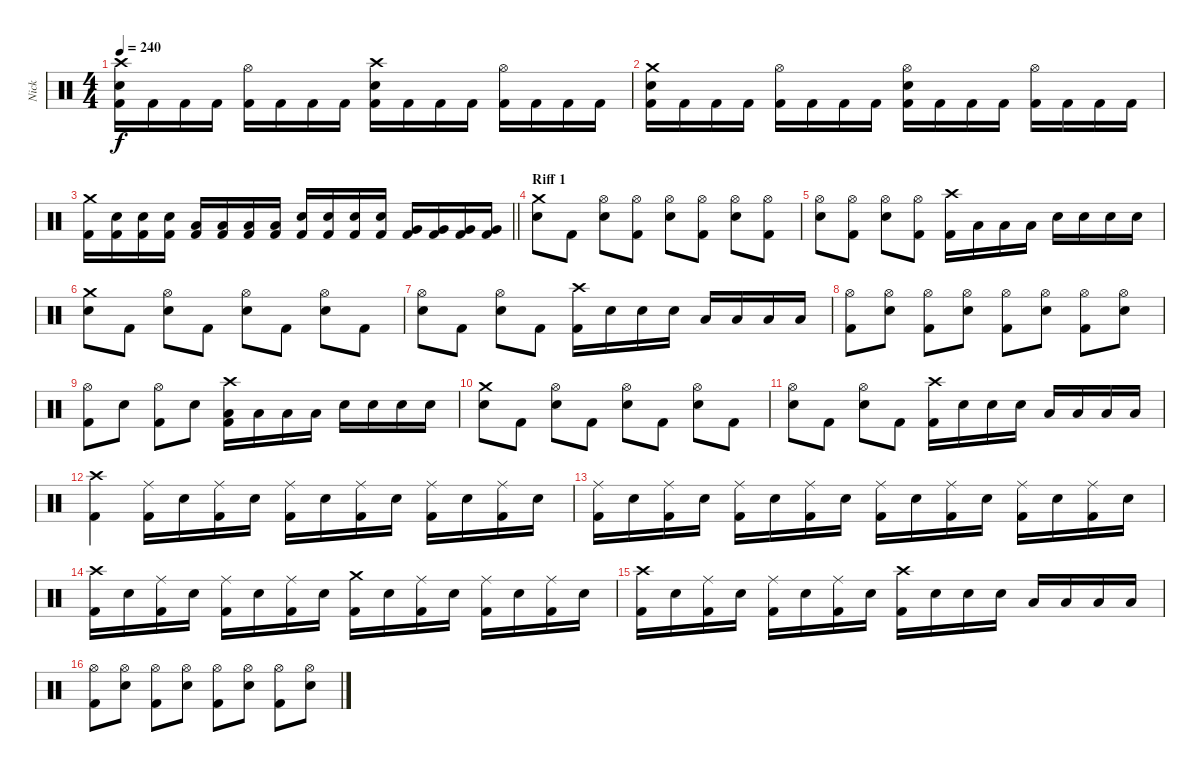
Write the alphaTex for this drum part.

\track ("Nick" "Nick") {instrument percussion}
\staff {score}
\articulation defaults
\ts (4 4)
\tempo 240
\clef neutral
\ks c
("Crash high (hit)" "Electric Snare (hit)" "Kick (hit) 2").16{dy f} "Kick (hit) 2".16 "Kick (hit) 2".16 "Kick (hit) 2".16 ("Hi-Hat (open)" "Kick (hit) 2").16 "Kick (hit) 2".16 "Kick (hit) 2".16 "Kick (hit) 2".16 ("Crash high (hit)" "Electric Snare (hit)" "Kick (hit) 2").16 "Kick (hit) 2".16 "Kick (hit) 2".16 "Kick (hit) 2".16 ("Hi-Hat (open)" "Kick (hit) 2").16 "Kick (hit) 2".16 "Kick (hit) 2".16 "Kick (hit) 2".16 |
("Crash medium (hit)" "Electric Snare (hit)" "Kick (hit) 2").16 "Kick (hit) 2".16 "Kick (hit) 2".16 "Kick (hit) 2".16 ("Hi-Hat (open)" "Kick (hit) 2").16 "Kick (hit) 2".16 "Kick (hit) 2".16 "Kick (hit) 2".16 ("Hi-Hat (open)" "Electric Snare (hit)" "Kick (hit) 2").16 "Kick (hit) 2".16 "Kick (hit) 2".16 "Kick (hit) 2".16 ("Hi-Hat (open)" "Kick (hit) 2").16 "Kick (hit) 2".16 "Kick (hit) 2".16 "Kick (hit) 2".16 |
\barLineRight lightlight
("Crash medium (hit)" "Kick (hit) 2").16 ("Electric Snare (hit)" "Kick (hit) 2").16 ("Electric Snare (hit)" "Kick (hit) 2").16 ("Electric Snare (hit)" "Kick (hit) 2").16 ("Low Tom (hit)" "Kick (hit) 2").16 ("Low Tom (hit)" "Kick (hit) 2").16 ("Low Tom (hit)" "Kick (hit) 2").16 ("Low Tom (hit)" "Kick (hit) 2").16 ("Electric Snare (hit)" "Kick (hit) 2").16 ("Electric Snare (hit)" "Kick (hit) 2").16 ("Electric Snare (hit)" "Kick (hit) 2").16 ("Electric Snare (hit)" "Kick (hit) 2").16 ("Very Low Tom (hit)" "Kick (hit) 2").16 ("Very Low Tom (hit)" "Kick (hit) 2").16 ("Very Low Tom (hit)" "Kick (hit) 2").16 ("Very Low Tom (hit)" "Kick (hit) 2").16 |
\section ("" "Riff 1")
("Crash medium (hit)" "Electric Snare (hit)").8 "Kick (hit) 2".8 ("Hi-Hat (open)" "Electric Snare (hit)").8 ("Hi-Hat (open)" "Kick (hit) 2").8 ("Hi-Hat (open)" "Electric Snare (hit)").8 ("Hi-Hat (open)" "Kick (hit) 2").8 ("Hi-Hat (open)" "Electric Snare (hit)").8 ("Hi-Hat (open)" "Kick (hit) 2").8 |
("Hi-Hat (open)" "Electric Snare (hit)").8 ("Hi-Hat (open)" "Kick (hit) 2").8 ("Hi-Hat (open)" "Electric Snare (hit)").8 ("Hi-Hat (open)" "Kick (hit) 2").8 ("Crash high (hit)" "Kick (hit) 2").16 "Low Tom (hit)".16 "Low Tom (hit)".16 "Low Tom (hit)".16 "Electric Snare (hit)".16 "Electric Snare (hit)".16 "Electric Snare (hit)".16 "Electric Snare (hit)".16 |
("Crash medium (hit)" "Electric Snare (hit)").8 "Kick (hit) 2".8 ("Hi-Hat (open)" "Electric Snare (hit)").8 "Kick (hit) 2".8 ("Hi-Hat (open)" "Electric Snare (hit)").8 "Kick (hit) 2".8 ("Hi-Hat (open)" "Electric Snare (hit)").8 "Kick (hit) 2".8 |
("Hi-Hat (open)" "Electric Snare (hit)").8 "Kick (hit) 2".8 ("Hi-Hat (open)" "Electric Snare (hit)").8 "Kick (hit) 2".8 ("Crash high (hit)" "Kick (hit) 2").16 "Electric Snare (hit)".16 "Electric Snare (hit)".16 "Electric Snare (hit)".16 "Low Tom (hit)".16 "Low Tom (hit)".16 "Low Tom (hit)".16 "Low Tom (hit)".16 |
("Hi-Hat (open)" "Kick (hit) 2").8 ("Hi-Hat (open)" "Electric Snare (hit)").8 ("Hi-Hat (open)" "Kick (hit) 2").8 ("Hi-Hat (open)" "Electric Snare (hit)").8 ("Hi-Hat (open)" "Kick (hit) 2").8 ("Hi-Hat (open)" "Electric Snare (hit)").8 ("Hi-Hat (open)" "Kick (hit) 2").8 ("Hi-Hat (open)" "Electric Snare (hit)").8 |
("Hi-Hat (open)" "Kick (hit) 2").8 "Electric Snare (hit)".8 ("Hi-Hat (open)" "Kick (hit) 2").8 "Electric Snare (hit)".8 ("Crash high (hit)" "Low Tom (hit)" "Kick (hit) 2").16 "Low Tom (hit)".16 "Low Tom (hit)".16 "Low Tom (hit)".16 "Electric Snare (hit)".16 "Electric Snare (hit)".16 "Electric Snare (hit)".16 "Electric Snare (hit)".16 |
("Crash medium (hit)" "Electric Snare (hit)").8 "Kick (hit) 2".8 ("Hi-Hat (open)" "Electric Snare (hit)").8 "Kick (hit) 2".8 ("Hi-Hat (open)" "Electric Snare (hit)").8 "Kick (hit) 2".8 ("Hi-Hat (open)" "Electric Snare (hit)").8 "Kick (hit) 2".8 |
("Hi-Hat (open)" "Electric Snare (hit)").8 "Kick (hit) 2".8 ("Hi-Hat (open)" "Electric Snare (hit)").8 "Kick (hit) 2".8 ("Crash high (hit)" "Kick (hit) 2").16 "Electric Snare (hit)".16 "Electric Snare (hit)".16 "Electric Snare (hit)".16 "Low Tom (hit)".16 "Low Tom (hit)".16 "Low Tom (hit)".16 "Low Tom (hit)".16 |
("Crash high (hit)" "Kick (hit) 2").4 ("Ride (middle)" "Kick (hit) 2").16 "Electric Snare (hit)".16 ("Ride (middle)" "Kick (hit) 2").16 "Electric Snare (hit)".16 ("Ride (middle)" "Kick (hit) 2").16 "Electric Snare (hit)".16 ("Ride (middle)" "Kick (hit) 2").16 "Electric Snare (hit)".16 ("Ride (middle)" "Kick (hit) 2").16 "Electric Snare (hit)".16 ("Ride (middle)" "Kick (hit) 2").16 "Electric Snare (hit)".16 |
("Ride (middle)" "Kick (hit) 2").16 "Electric Snare (hit)".16 ("Ride (middle)" "Kick (hit) 2").16 "Electric Snare (hit)".16 ("Ride (middle)" "Kick (hit) 2").16 "Electric Snare (hit)".16 ("Ride (middle)" "Kick (hit) 2").16 "Electric Snare (hit)".16 ("Ride (middle)" "Kick (hit) 2").16 "Electric Snare (hit)".16 ("Ride (middle)" "Kick (hit) 2").16 "Electric Snare (hit)".16 ("Ride (middle)" "Kick (hit) 2").16 "Electric Snare (hit)".16 ("Ride (middle)" "Kick (hit) 2").16 "Electric Snare (hit)".16 |
("Crash high (hit)" "Kick (hit) 2").16 "Electric Snare (hit)".16 ("Ride (middle)" "Kick (hit) 2").16 "Electric Snare (hit)".16 ("Ride (middle)" "Kick (hit) 2").16 "Electric Snare (hit)".16 ("Ride (middle)" "Kick (hit) 2").16 "Electric Snare (hit)".16 ("Crash medium (hit)" "Kick (hit) 2").16 "Electric Snare (hit)".16 ("Ride (middle)" "Kick (hit) 2").16 "Electric Snare (hit)".16 ("Ride (middle)" "Kick (hit) 2").16 "Electric Snare (hit)".16 ("Ride (middle)" "Kick (hit) 2").16 "Electric Snare (hit)".16 |
("Crash high (hit)" "Kick (hit) 2").16 "Electric Snare (hit)".16 ("Ride (middle)" "Kick (hit) 2").16 "Electric Snare (hit)".16 ("Ride (middle)" "Kick (hit) 2").16 "Electric Snare (hit)".16 ("Ride (middle)" "Kick (hit) 2").16 "Electric Snare (hit)".16 ("Crash high (hit)" "Kick (hit) 2").16 "Electric Snare (hit)".16 "Electric Snare (hit)".16 "Electric Snare (hit)".16 "Low Tom (hit)".16 "Low Tom (hit)".16 "Low Tom (hit)".16 "Low Tom (hit)".16 |
("Hi-Hat (open)" "Kick (hit) 2").8 ("Hi-Hat (open)" "Electric Snare (hit)").8 ("Hi-Hat (open)" "Kick (hit) 2").8 ("Hi-Hat (open)" "Electric Snare (hit)").8 ("Hi-Hat (open)" "Kick (hit) 2").8 ("Hi-Hat (open)" "Electric Snare (hit)").8 ("Hi-Hat (open)" "Kick (hit) 2").8 ("Hi-Hat (open)" "Electric Snare (hit)").8
